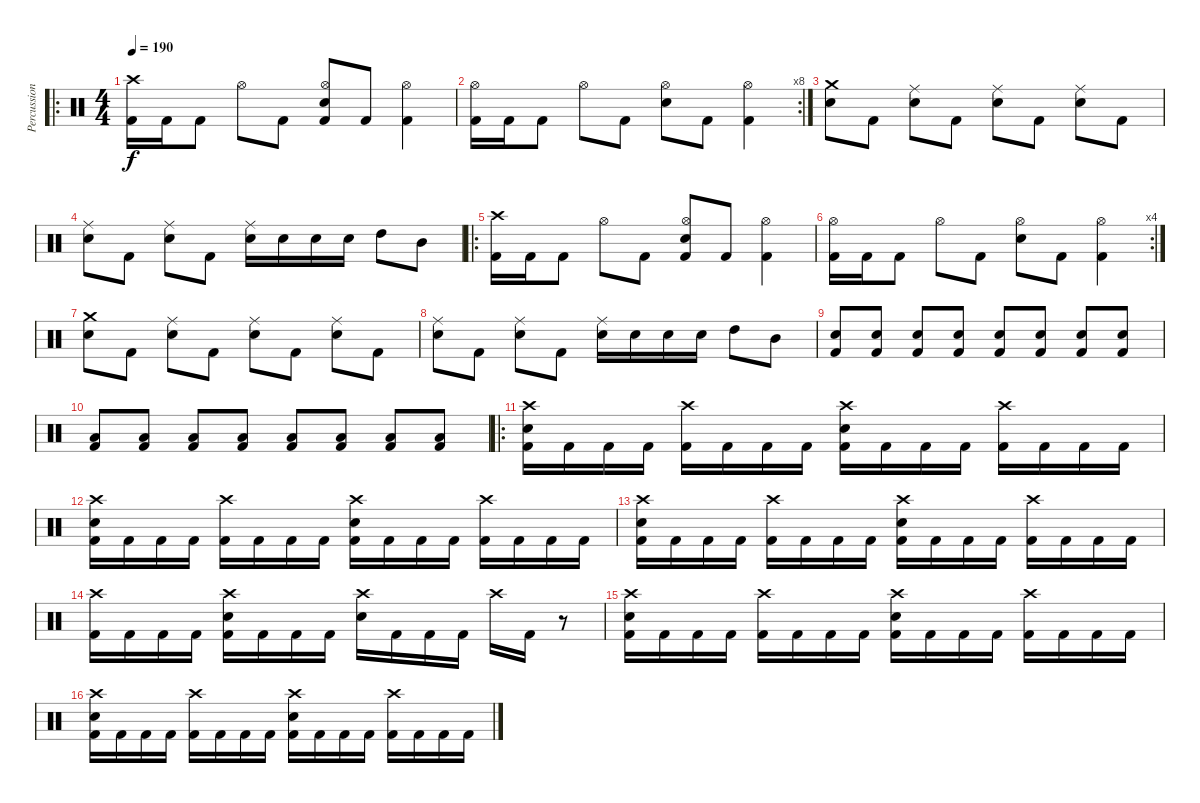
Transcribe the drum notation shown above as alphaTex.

\track ("Percussion" "Percussion") {instrument percussion}
\staff {score}
\articulation defaults
\ro
\ts (4 4)
\tempo 190
\clef neutral
\ks c
("Crash high (hit)" "Kick (hit) 2").16{dy f} "Kick (hit) 2".16 "Kick (hit) 2".8 "Hi-Hat (open)".8 "Kick (hit) 2".8 ("Hi-Hat (open)" "Electric Snare (hit)" "Kick (hit) 2").8 "Kick (hit) 2".8 ("Hi-Hat (open)" "Kick (hit) 2").4 |
\rc 8
("Hi-Hat (open)" "Kick (hit) 2").16 "Kick (hit) 2".16 "Kick (hit) 2".8 "Hi-Hat (open)".8 "Kick (hit) 2".8 ("Hi-Hat (open)" "Electric Snare (hit)").8 "Kick (hit) 2".8 ("Hi-Hat (open)" "Kick (hit) 2").4 |
("Crash medium (hit)" "Electric Snare (hit)").8 "Kick (hit) 2".8 ("Ride (middle)" "Electric Snare (hit)").8 "Kick (hit) 2".8 ("Ride (middle)" "Electric Snare (hit)").8 "Kick (hit) 2".8 ("Ride (middle)" "Electric Snare (hit)").8 "Kick (hit) 2".8 |
("Ride (middle)" "Electric Snare (hit)").8 "Kick (hit) 2".8 ("Ride (middle)" "Electric Snare (hit)").8 "Kick (hit) 2".8 ("Ride (middle)" "Electric Snare (hit)").16 "Electric Snare (hit)".16 "Electric Snare (hit)".16 "Electric Snare (hit)".16 "High Tom (hit)".8 "Mid Tom (hit)".8 |
\ro
("Crash high (hit)" "Kick (hit) 2").16 "Kick (hit) 2".16 "Kick (hit) 2".8 "Hi-Hat (open)".8 "Kick (hit) 2".8 ("Hi-Hat (open)" "Electric Snare (hit)" "Kick (hit) 2").8 "Kick (hit) 2".8 ("Hi-Hat (open)" "Kick (hit) 2").4 |
\rc 4
("Hi-Hat (open)" "Kick (hit) 2").16 "Kick (hit) 2".16 "Kick (hit) 2".8 "Hi-Hat (open)".8 "Kick (hit) 2".8 ("Hi-Hat (open)" "Electric Snare (hit)").8 "Kick (hit) 2".8 ("Hi-Hat (open)" "Kick (hit) 2").4 |
("Crash medium (hit)" "Electric Snare (hit)").8 "Kick (hit) 2".8 ("Ride (middle)" "Electric Snare (hit)").8 "Kick (hit) 2".8 ("Ride (middle)" "Electric Snare (hit)").8 "Kick (hit) 2".8 ("Ride (middle)" "Electric Snare (hit)").8 "Kick (hit) 2".8 |
("Ride (middle)" "Electric Snare (hit)").8 "Kick (hit) 2".8 ("Ride (middle)" "Electric Snare (hit)").8 "Kick (hit) 2".8 ("Ride (middle)" "Electric Snare (hit)").16 "Electric Snare (hit)".16 "Electric Snare (hit)".16 "Electric Snare (hit)".16 "High Tom (hit)".8 "Mid Tom (hit)".8 |
("Electric Snare (hit)" "Kick (hit) 2").8 ("Electric Snare (hit)" "Kick (hit) 2").8 ("Electric Snare (hit)" "Kick (hit) 2").8 ("Electric Snare (hit)" "Kick (hit) 2").8 ("Electric Snare (hit)" "Kick (hit) 2").8 ("Electric Snare (hit)" "Kick (hit) 2").8 ("Electric Snare (hit)" "Kick (hit) 2").8 ("Electric Snare (hit)" "Kick (hit) 2").8 |
("Low Floor Tom (hit)" "Kick (hit) 2").8 ("Low Floor Tom (hit)" "Kick (hit) 2").8 ("Low Floor Tom (hit)" "Kick (hit) 2").8 ("Low Floor Tom (hit)" "Kick (hit) 2").8 ("Low Floor Tom (hit)" "Kick (hit) 2").8 ("Low Floor Tom (hit)" "Kick (hit) 2").8 ("Low Floor Tom (hit)" "Kick (hit) 2").8 ("Low Floor Tom (hit)" "Kick (hit) 2").8 |
\ro
("Crash high (hit)" "Electric Snare (hit)" "Kick (hit) 2").16 "Kick (hit) 2".16 "Kick (hit) 2".16 "Kick (hit) 2".16 ("Crash high (hit)" "Kick (hit) 2").16 "Kick (hit) 2".16 "Kick (hit) 2".16 "Kick (hit) 2".16 ("Crash high (hit)" "Electric Snare (hit)" "Kick (hit) 2").16 "Kick (hit) 2".16 "Kick (hit) 2".16 "Kick (hit) 2".16 ("Crash high (hit)" "Kick (hit) 2").16 "Kick (hit) 2".16 "Kick (hit) 2".16 "Kick (hit) 2".16 |
("Crash high (hit)" "Electric Snare (hit)" "Kick (hit) 2").16 "Kick (hit) 2".16 "Kick (hit) 2".16 "Kick (hit) 2".16 ("Crash high (hit)" "Kick (hit) 2").16 "Kick (hit) 2".16 "Kick (hit) 2".16 "Kick (hit) 2".16 ("Crash high (hit)" "Electric Snare (hit)" "Kick (hit) 2").16 "Kick (hit) 2".16 "Kick (hit) 2".16 "Kick (hit) 2".16 ("Crash high (hit)" "Kick (hit) 2").16 "Kick (hit) 2".16 "Kick (hit) 2".16 "Kick (hit) 2".16 |
("Crash high (hit)" "Electric Snare (hit)" "Kick (hit) 2").16 "Kick (hit) 2".16 "Kick (hit) 2".16 "Kick (hit) 2".16 ("Crash high (hit)" "Kick (hit) 2").16 "Kick (hit) 2".16 "Kick (hit) 2".16 "Kick (hit) 2".16 ("Crash high (hit)" "Electric Snare (hit)" "Kick (hit) 2").16 "Kick (hit) 2".16 "Kick (hit) 2".16 "Kick (hit) 2".16 ("Crash high (hit)" "Kick (hit) 2").16 "Kick (hit) 2".16 "Kick (hit) 2".16 "Kick (hit) 2".16 |
("Crash high (hit)" "Kick (hit) 2").16 "Kick (hit) 2".16 "Kick (hit) 2".16 "Kick (hit) 2".16 ("Crash high (hit)" "Electric Snare (hit)" "Kick (hit) 2").16 "Kick (hit) 2".16 "Kick (hit) 2".16 "Kick (hit) 2".16 ("Crash high (hit)" "Electric Snare (hit)").16 "Kick (hit) 2".16 "Kick (hit) 2".16 "Kick (hit) 2".16 "Crash high (hit)".16 "Kick (hit) 2".16 r.8 |
("Crash high (hit)" "Electric Snare (hit)" "Kick (hit) 2").16 "Kick (hit) 2".16 "Kick (hit) 2".16 "Kick (hit) 2".16 ("Crash high (hit)" "Kick (hit) 2").16 "Kick (hit) 2".16 "Kick (hit) 2".16 "Kick (hit) 2".16 ("Crash high (hit)" "Electric Snare (hit)" "Kick (hit) 2").16 "Kick (hit) 2".16 "Kick (hit) 2".16 "Kick (hit) 2".16 ("Crash high (hit)" "Kick (hit) 2").16 "Kick (hit) 2".16 "Kick (hit) 2".16 "Kick (hit) 2".16 |
("Crash high (hit)" "Electric Snare (hit)" "Kick (hit) 2").16 "Kick (hit) 2".16 "Kick (hit) 2".16 "Kick (hit) 2".16 ("Crash high (hit)" "Kick (hit) 2").16 "Kick (hit) 2".16 "Kick (hit) 2".16 "Kick (hit) 2".16 ("Crash high (hit)" "Electric Snare (hit)" "Kick (hit) 2").16 "Kick (hit) 2".16 "Kick (hit) 2".16 "Kick (hit) 2".16 ("Crash high (hit)" "Kick (hit) 2").16 "Kick (hit) 2".16 "Kick (hit) 2".16 "Kick (hit) 2".16
